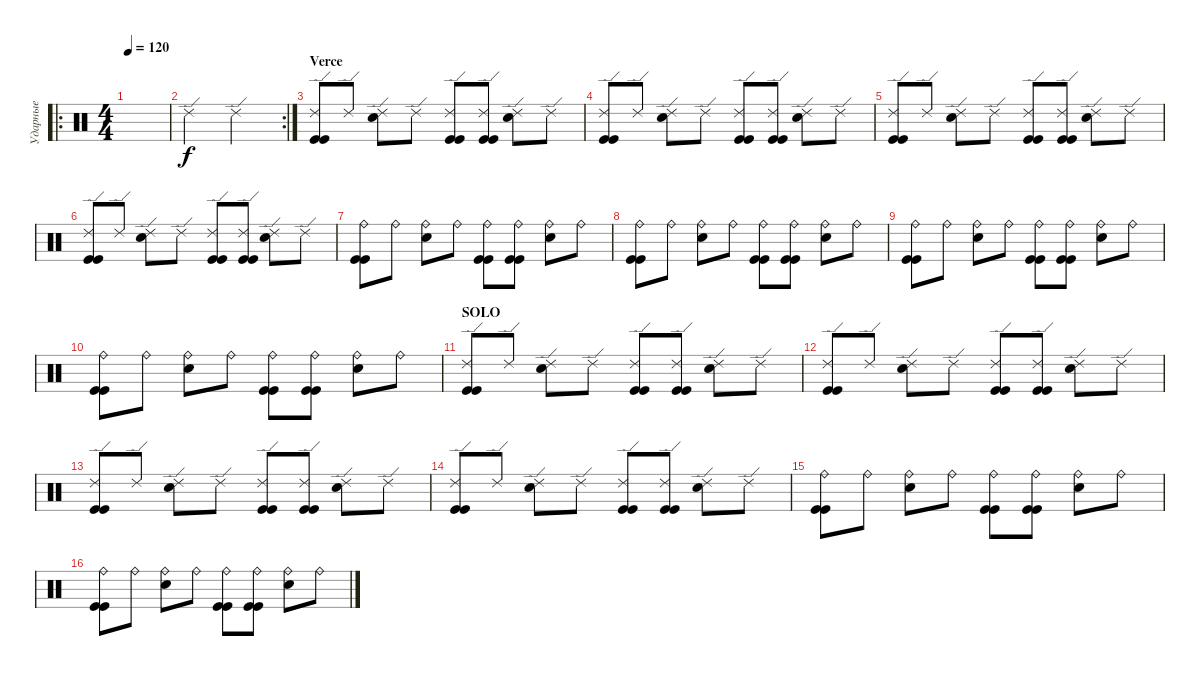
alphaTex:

\track ("Ударные" "Ударные") {instrument percussion}
\staff {score}
\articulation defaults
\ro
\ts (4 4)
\tempo 120
\clef neutral
\ks c
|
\rc 2 "Ride (edge) 2".2 "Ride (edge) 2".2
|
\section ("" "Verce")
("Ride (edge) 2" "Kick (hit)" "Kick (hit)").8 "Ride (edge) 2".8 ("Ride (edge) 2" "Snare (hit) 2").8 "Ride (edge) 2".8 ("Ride (edge) 2" "Kick (hit)" "Kick (hit)").8 ("Ride (edge) 2" "Kick (hit)" "Kick (hit)").8 ("Ride (edge) 2" "Snare (hit) 2").8 "Ride (edge) 2".8 |
("Ride (edge) 2" "Kick (hit)" "Kick (hit)").8 "Ride (edge) 2".8 ("Ride (edge) 2" "Snare (hit) 2").8 "Ride (edge) 2".8 ("Ride (edge) 2" "Kick (hit)" "Kick (hit)").8 ("Ride (edge) 2" "Kick (hit)" "Kick (hit)").8 ("Ride (edge) 2" "Snare (hit) 2").8 "Ride (edge) 2".8 |
("Ride (edge) 2" "Kick (hit)" "Kick (hit)").8 "Ride (edge) 2".8 ("Ride (edge) 2" "Snare (hit) 2").8 "Ride (edge) 2".8 ("Ride (edge) 2" "Kick (hit)" "Kick (hit)").8 ("Ride (edge) 2" "Kick (hit)" "Kick (hit)").8 ("Ride (edge) 2" "Snare (hit) 2").8 "Ride (edge) 2".8 |
("Ride (edge) 2" "Kick (hit)" "Kick (hit)").8 "Ride (edge) 2".8 ("Ride (edge) 2" "Snare (hit) 2").8 "Ride (edge) 2".8 ("Ride (edge) 2" "Kick (hit)" "Kick (hit)").8 ("Ride (edge) 2" "Kick (hit)" "Kick (hit)").8 ("Ride (edge) 2" "Snare (hit) 2").8 "Ride (edge) 2".8 |
("Ride (bell)" "Kick (hit)" "Kick (hit)").8 "Ride (bell)".8 ("Ride (bell)" "Snare (hit) 2").8 "Ride (bell)".8 ("Ride (bell)" "Kick (hit)" "Kick (hit)").8 ("Ride (bell)" "Kick (hit)" "Kick (hit)").8 ("Ride (bell)" "Snare (hit) 2").8 "Ride (bell)".8 |
("Ride (bell)" "Kick (hit)" "Kick (hit)").8 "Ride (bell)".8 ("Ride (bell)" "Snare (hit) 2").8 "Ride (bell)".8 ("Ride (bell)" "Kick (hit)" "Kick (hit)").8 ("Ride (bell)" "Kick (hit)" "Kick (hit)").8 ("Ride (bell)" "Snare (hit) 2").8 "Ride (bell)".8 |
("Ride (bell)" "Kick (hit)" "Kick (hit)").8 "Ride (bell)".8 ("Ride (bell)" "Snare (hit) 2").8 "Ride (bell)".8 ("Ride (bell)" "Kick (hit)" "Kick (hit)").8 ("Ride (bell)" "Kick (hit)" "Kick (hit)").8 ("Ride (bell)" "Snare (hit) 2").8 "Ride (bell)".8 |
("Ride (bell)" "Kick (hit)" "Kick (hit)").8 "Ride (bell)".8 ("Ride (bell)" "Snare (hit) 2").8 "Ride (bell)".8 ("Ride (bell)" "Kick (hit)" "Kick (hit)").8 ("Ride (bell)" "Kick (hit)" "Kick (hit)").8 ("Ride (bell)" "Snare (hit) 2").8 "Ride (bell)".8 |
\section ("" "SOLO")
("Ride (edge) 2" "Kick (hit)" "Kick (hit)").8 "Ride (edge) 2".8 ("Ride (edge) 2" "Snare (hit) 2").8 "Ride (edge) 2".8 ("Ride (edge) 2" "Kick (hit)" "Kick (hit)").8 ("Ride (edge) 2" "Kick (hit)" "Kick (hit)").8 ("Ride (edge) 2" "Snare (hit) 2").8 "Ride (edge) 2".8 |
("Ride (edge) 2" "Kick (hit)" "Kick (hit)").8 "Ride (edge) 2".8 ("Ride (edge) 2" "Snare (hit) 2").8 "Ride (edge) 2".8 ("Ride (edge) 2" "Kick (hit)" "Kick (hit)").8 ("Ride (edge) 2" "Kick (hit)" "Kick (hit)").8 ("Ride (edge) 2" "Snare (hit) 2").8 "Ride (edge) 2".8 |
("Ride (edge) 2" "Kick (hit)" "Kick (hit)").8 "Ride (edge) 2".8 ("Ride (edge) 2" "Snare (hit) 2").8 "Ride (edge) 2".8 ("Ride (edge) 2" "Kick (hit)" "Kick (hit)").8 ("Ride (edge) 2" "Kick (hit)" "Kick (hit)").8 ("Ride (edge) 2" "Snare (hit) 2").8 "Ride (edge) 2".8 |
("Ride (edge) 2" "Kick (hit)" "Kick (hit)").8 "Ride (edge) 2".8 ("Ride (edge) 2" "Snare (hit) 2").8 "Ride (edge) 2".8 ("Ride (edge) 2" "Kick (hit)" "Kick (hit)").8 ("Ride (edge) 2" "Kick (hit)" "Kick (hit)").8 ("Ride (edge) 2" "Snare (hit) 2").8 "Ride (edge) 2".8 |
("Ride (bell)" "Kick (hit)" "Kick (hit)").8 "Ride (bell)".8 ("Ride (bell)" "Snare (hit) 2").8 "Ride (bell)".8 ("Ride (bell)" "Kick (hit)" "Kick (hit)").8 ("Ride (bell)" "Kick (hit)" "Kick (hit)").8 ("Ride (bell)" "Snare (hit) 2").8 "Ride (bell)".8 |
("Ride (bell)" "Kick (hit)" "Kick (hit)").8 "Ride (bell)".8 ("Ride (bell)" "Snare (hit) 2").8 "Ride (bell)".8 ("Ride (bell)" "Kick (hit)" "Kick (hit)").8 ("Ride (bell)" "Kick (hit)" "Kick (hit)").8 ("Ride (bell)" "Snare (hit) 2").8 "Ride (bell)".8
